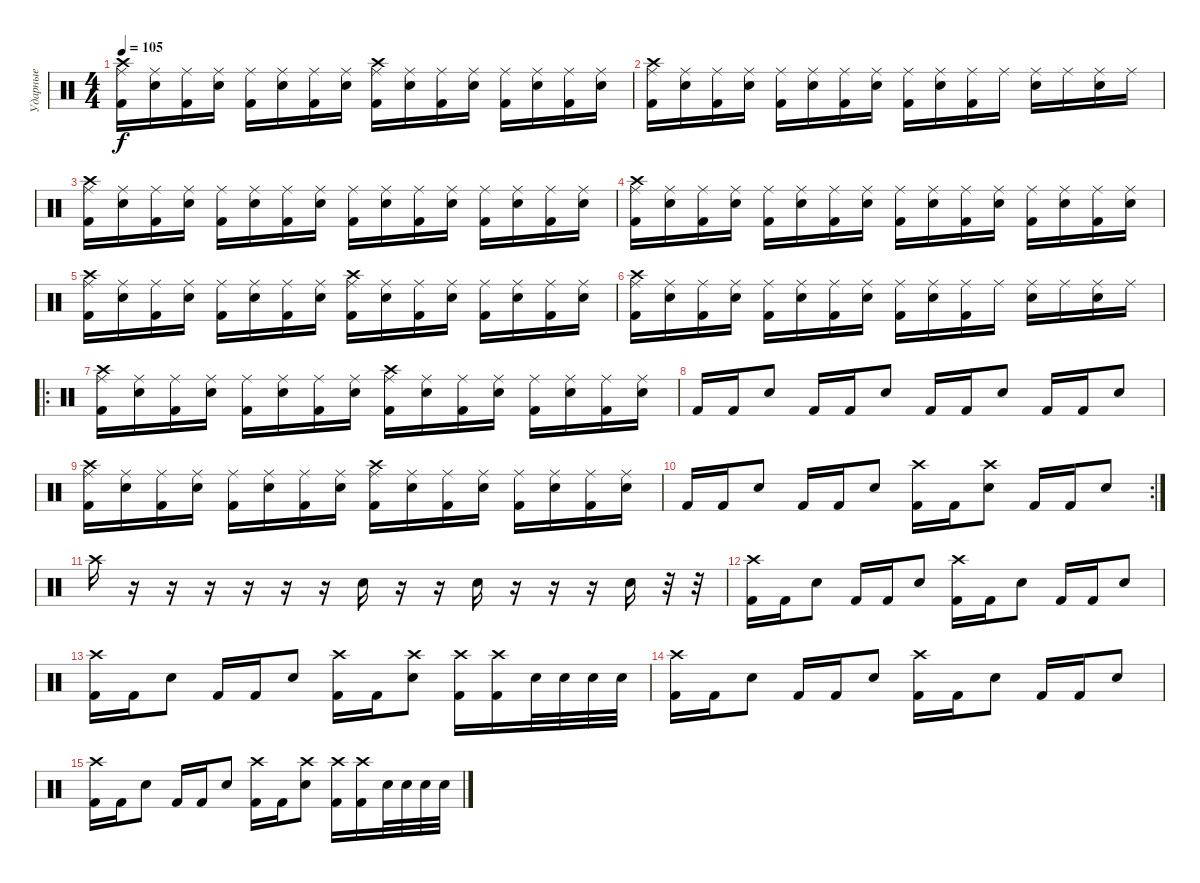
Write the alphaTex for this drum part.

\track ("Ударные" "Ударные") {instrument percussion}
\staff {score}
\articulation defaults
\ts (4 4)
\tempo 105
\clef neutral
\ks c
("Ride (middle)" "Crash high (hit)" "Kick (hit) 2").16{dy f} ("Ride (middle)" "Electric Snare (hit)").16 ("Ride (middle)" "Kick (hit) 2").16 ("Ride (middle)" "Electric Snare (hit)").16 ("Ride (middle)" "Kick (hit) 2").16 ("Ride (middle)" "Electric Snare (hit)").16 ("Ride (middle)" "Kick (hit) 2").16 ("Ride (middle)" "Electric Snare (hit)").16 ("Ride (middle)" "Crash high (hit)" "Kick (hit) 2").16 ("Ride (middle)" "Electric Snare (hit)").16 ("Ride (middle)" "Kick (hit) 2").16 ("Ride (middle)" "Electric Snare (hit)").16 ("Ride (middle)" "Kick (hit) 2").16 ("Ride (middle)" "Electric Snare (hit)").16 ("Ride (middle)" "Kick (hit) 2").16 ("Ride (middle)" "Electric Snare (hit)").16 |
("Ride (middle)" "Crash high (hit)" "Kick (hit) 2").16 ("Ride (middle)" "Electric Snare (hit)").16 ("Ride (middle)" "Kick (hit) 2").16 ("Ride (middle)" "Electric Snare (hit)").16 ("Ride (middle)" "Kick (hit) 2").16 ("Ride (middle)" "Electric Snare (hit)").16 ("Ride (middle)" "Kick (hit) 2").16 ("Ride (middle)" "Electric Snare (hit)").16 ("Ride (middle)" "Kick (hit) 2").16 ("Ride (middle)" "Electric Snare (hit)").16 ("Ride (middle)" "Kick (hit) 2").16 "Ride (middle)".16 ("Ride (middle)" "Electric Snare (hit)").16 "Ride (middle)".16 ("Ride (middle)" "Electric Snare (hit)").16 "Ride (middle)".16 |
("Ride (middle)" "Crash high (hit)" "Kick (hit) 2").16 ("Ride (middle)" "Electric Snare (hit)").16 ("Ride (middle)" "Kick (hit) 2").16 ("Ride (middle)" "Electric Snare (hit)").16 ("Ride (middle)" "Kick (hit) 2").16 ("Ride (middle)" "Electric Snare (hit)").16 ("Ride (middle)" "Kick (hit) 2").16 ("Ride (middle)" "Electric Snare (hit)").16 ("Ride (middle)" "Kick (hit) 2").16 ("Ride (middle)" "Electric Snare (hit)").16 ("Ride (middle)" "Kick (hit) 2").16 ("Ride (middle)" "Electric Snare (hit)").16 ("Ride (middle)" "Kick (hit) 2").16 ("Ride (middle)" "Electric Snare (hit)").16 ("Ride (middle)" "Kick (hit) 2").16 ("Ride (middle)" "Electric Snare (hit)").16 |
("Ride (middle)" "Crash high (hit)" "Kick (hit) 2").16 ("Ride (middle)" "Electric Snare (hit)").16 ("Ride (middle)" "Kick (hit) 2").16 ("Ride (middle)" "Electric Snare (hit)").16 ("Ride (middle)" "Kick (hit) 2").16 ("Ride (middle)" "Electric Snare (hit)").16 ("Ride (middle)" "Kick (hit) 2").16 ("Ride (middle)" "Electric Snare (hit)").16 ("Ride (middle)" "Kick (hit) 2").16 ("Ride (middle)" "Electric Snare (hit)").16 ("Ride (middle)" "Kick (hit) 2").16 ("Ride (middle)" "Electric Snare (hit)").16 ("Ride (middle)" "Kick (hit) 2").16 ("Ride (middle)" "Electric Snare (hit)").16 ("Ride (middle)" "Kick (hit) 2").16 ("Ride (middle)" "Electric Snare (hit)").16 |
("Ride (middle)" "Crash high (hit)" "Kick (hit) 2").16 ("Ride (middle)" "Electric Snare (hit)").16 ("Ride (middle)" "Kick (hit) 2").16 ("Ride (middle)" "Electric Snare (hit)").16 ("Ride (middle)" "Kick (hit) 2").16 ("Ride (middle)" "Electric Snare (hit)").16 ("Ride (middle)" "Kick (hit) 2").16 ("Ride (middle)" "Electric Snare (hit)").16 ("Ride (middle)" "Crash high (hit)" "Kick (hit) 2").16 ("Ride (middle)" "Electric Snare (hit)").16 ("Ride (middle)" "Kick (hit) 2").16 ("Ride (middle)" "Electric Snare (hit)").16 ("Ride (middle)" "Kick (hit) 2").16 ("Ride (middle)" "Electric Snare (hit)").16 ("Ride (middle)" "Kick (hit) 2").16 ("Ride (middle)" "Electric Snare (hit)").16 |
("Ride (middle)" "Crash high (hit)" "Kick (hit) 2").16 ("Ride (middle)" "Electric Snare (hit)").16 ("Ride (middle)" "Kick (hit) 2").16 ("Ride (middle)" "Electric Snare (hit)").16 ("Ride (middle)" "Kick (hit) 2").16 ("Ride (middle)" "Electric Snare (hit)").16 ("Ride (middle)" "Kick (hit) 2").16 ("Ride (middle)" "Electric Snare (hit)").16 ("Ride (middle)" "Kick (hit) 2").16 ("Ride (middle)" "Electric Snare (hit)").16 ("Ride (middle)" "Kick (hit) 2").16 "Ride (middle)".16 ("Ride (middle)" "Electric Snare (hit)").16 "Ride (middle)".16 ("Ride (middle)" "Electric Snare (hit)").16 "Ride (middle)".16 |
\ro
("Ride (middle)" "Crash high (hit)" "Kick (hit) 2").16 ("Ride (middle)" "Electric Snare (hit)").16 ("Ride (middle)" "Kick (hit) 2").16 ("Ride (middle)" "Electric Snare (hit)").16 ("Ride (middle)" "Kick (hit) 2").16 ("Ride (middle)" "Electric Snare (hit)").16 ("Ride (middle)" "Kick (hit) 2").16 ("Ride (middle)" "Electric Snare (hit)").16 ("Ride (middle)" "Crash high (hit)" "Kick (hit) 2").16 ("Ride (middle)" "Electric Snare (hit)").16 ("Ride (middle)" "Kick (hit) 2").16 ("Ride (middle)" "Electric Snare (hit)").16 ("Ride (middle)" "Kick (hit) 2").16 ("Ride (middle)" "Electric Snare (hit)").16 ("Ride (middle)" "Kick (hit) 2").16 ("Ride (middle)" "Electric Snare (hit)").16 |
"Kick (hit) 2".16 "Kick (hit) 2".16 "Electric Snare (hit)".8 "Kick (hit) 2".16 "Kick (hit) 2".16 "Electric Snare (hit)".8 "Kick (hit) 2".16 "Kick (hit) 2".16 "Electric Snare (hit)".8 "Kick (hit) 2".16 "Kick (hit) 2".16 "Electric Snare (hit)".8 |
("Ride (middle)" "Crash high (hit)" "Kick (hit) 2").16 ("Ride (middle)" "Electric Snare (hit)").16 ("Ride (middle)" "Kick (hit) 2").16 ("Ride (middle)" "Electric Snare (hit)").16 ("Ride (middle)" "Kick (hit) 2").16 ("Ride (middle)" "Electric Snare (hit)").16 ("Ride (middle)" "Kick (hit) 2").16 ("Ride (middle)" "Electric Snare (hit)").16 ("Ride (middle)" "Crash high (hit)" "Kick (hit) 2").16 ("Ride (middle)" "Electric Snare (hit)").16 ("Ride (middle)" "Kick (hit) 2").16 ("Ride (middle)" "Electric Snare (hit)").16 ("Ride (middle)" "Kick (hit) 2").16 ("Ride (middle)" "Electric Snare (hit)").16 ("Ride (middle)" "Kick (hit) 2").16 ("Ride (middle)" "Electric Snare (hit)").16 |
\rc 2 "Kick (hit) 2".16 "Kick (hit) 2".16 "Electric Snare (hit)".8 "Kick (hit) 2".16 "Kick (hit) 2".16 "Electric Snare (hit)".8
("Crash high (hit)" "Kick (hit) 2").16 "Kick (hit) 2".16 ("Crash high (hit)" "Electric Snare (hit)").8 "Kick (hit) 2".16 "Kick (hit) 2".16 "Electric Snare (hit)".8 |
"Crash high (hit)".16 r.16 r.16 r.16 r.16 r.16 r.16 "Electric Snare (hit)".16 r.16 r.16 "Electric Snare (hit)".16 r.16 r.16 r.16 "Electric Snare (hit)".16 r.32 r.32 |
("Crash high (hit)" "Kick (hit) 2").16 "Kick (hit) 2".16 "Electric Snare (hit)".8 "Kick (hit) 2".16 "Kick (hit) 2".16 "Electric Snare (hit)".8 ("Crash high (hit)" "Kick (hit) 2").16 "Kick (hit) 2".16 "Electric Snare (hit)".8 "Kick (hit) 2".16 "Kick (hit) 2".16 "Electric Snare (hit)".8 |
("Crash high (hit)" "Kick (hit) 2").16 "Kick (hit) 2".16 "Electric Snare (hit)".8 "Kick (hit) 2".16 "Kick (hit) 2".16 "Electric Snare (hit)".8 ("Crash high (hit)" "Kick (hit) 2").16 "Kick (hit) 2".16 ("Crash high (hit)" "Electric Snare (hit)").8 ("Crash high (hit)" "Kick (hit) 2").16 ("Crash high (hit)" "Kick (hit) 2").16 "Electric Snare (hit)".32 "Electric Snare (hit)".32 "Electric Snare (hit)".32 "Electric Snare (hit)".32 |
("Crash high (hit)" "Kick (hit) 2").16 "Kick (hit) 2".16 "Electric Snare (hit)".8 "Kick (hit) 2".16 "Kick (hit) 2".16 "Electric Snare (hit)".8 ("Crash high (hit)" "Kick (hit) 2").16 "Kick (hit) 2".16 "Electric Snare (hit)".8 "Kick (hit) 2".16 "Kick (hit) 2".16 "Electric Snare (hit)".8 |
("Crash high (hit)" "Kick (hit) 2").16 "Kick (hit) 2".16 "Electric Snare (hit)".8 "Kick (hit) 2".16 "Kick (hit) 2".16 "Electric Snare (hit)".8 ("Crash high (hit)" "Kick (hit) 2").16 "Kick (hit) 2".16 ("Crash high (hit)" "Electric Snare (hit)").8 ("Crash high (hit)" "Kick (hit) 2").16 ("Crash high (hit)" "Kick (hit) 2").16 "Electric Snare (hit)".32 "Electric Snare (hit)".32 "Electric Snare (hit)".32 "Electric Snare (hit)".32
